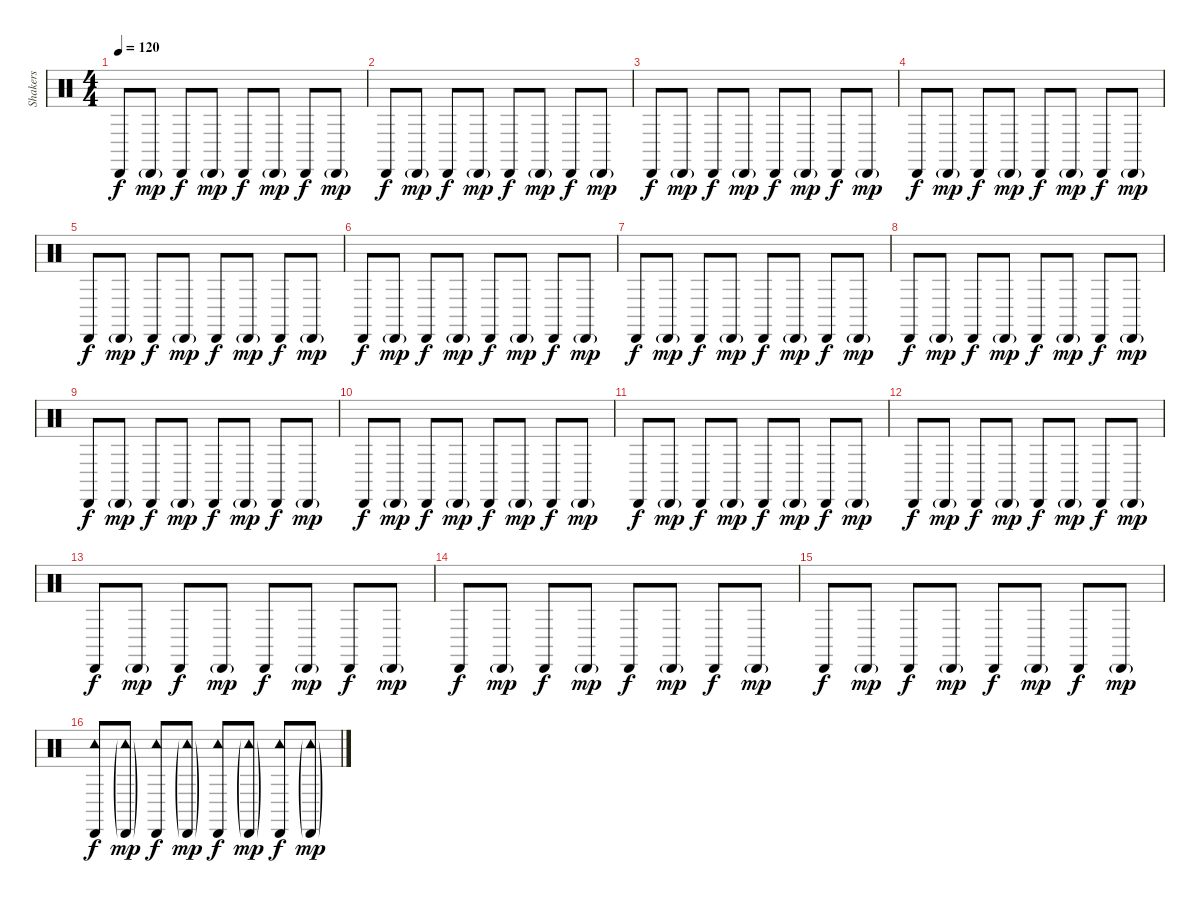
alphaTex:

\track ("Shakers" "Shakers") {instrument percussion}
\staff {score}
\articulation defaults
\ts (4 4)
\tempo 120
\clef neutral
\ks c "Cabasa (hit)".8{dy f} "Cabasa (hit)"{g}.8{dy mp} "Cabasa (hit)".8{dy f} "Cabasa (hit)"{g}.8{dy mp} "Cabasa (hit)".8{dy f} "Cabasa (hit)"{g}.8{dy mp} "Cabasa (hit)".8{dy f} "Cabasa (hit)"{g}.8{dy mp}
|
"Cabasa (hit)".8{dy f} "Cabasa (hit)"{g}.8{dy mp} "Cabasa (hit)".8{dy f} "Cabasa (hit)"{g}.8{dy mp} "Cabasa (hit)".8{dy f} "Cabasa (hit)"{g}.8{dy mp} "Cabasa (hit)".8{dy f} "Cabasa (hit)"{g}.8{dy mp} |
"Cabasa (hit)".8{dy f} "Cabasa (hit)"{g}.8{dy mp} "Cabasa (hit)".8{dy f} "Cabasa (hit)"{g}.8{dy mp} "Cabasa (hit)".8{dy f} "Cabasa (hit)"{g}.8{dy mp} "Cabasa (hit)".8{dy f} "Cabasa (hit)"{g}.8{dy mp} |
"Cabasa (hit)".8{dy f} "Cabasa (hit)"{g}.8{dy mp} "Cabasa (hit)".8{dy f} "Cabasa (hit)"{g}.8{dy mp} "Cabasa (hit)".8{dy f} "Cabasa (hit)"{g}.8{dy mp} "Cabasa (hit)".8{dy f} "Cabasa (hit)"{g}.8{dy mp} |
"Cabasa (hit)".8{dy f} "Cabasa (hit)"{g}.8{dy mp} "Cabasa (hit)".8{dy f} "Cabasa (hit)"{g}.8{dy mp} "Cabasa (hit)".8{dy f} "Cabasa (hit)"{g}.8{dy mp} "Cabasa (hit)".8{dy f} "Cabasa (hit)"{g}.8{dy mp} |
"Cabasa (hit)".8{dy f} "Cabasa (hit)"{g}.8{dy mp} "Cabasa (hit)".8{dy f} "Cabasa (hit)"{g}.8{dy mp} "Cabasa (hit)".8{dy f} "Cabasa (hit)"{g}.8{dy mp} "Cabasa (hit)".8{dy f} "Cabasa (hit)"{g}.8{dy mp} |
"Cabasa (hit)".8{dy f} "Cabasa (hit)"{g}.8{dy mp} "Cabasa (hit)".8{dy f} "Cabasa (hit)"{g}.8{dy mp} "Cabasa (hit)".8{dy f} "Cabasa (hit)"{g}.8{dy mp} "Cabasa (hit)".8{dy f} "Cabasa (hit)"{g}.8{dy mp} |
"Cabasa (hit)".8{dy f} "Cabasa (hit)"{g}.8{dy mp} "Cabasa (hit)".8{dy f} "Cabasa (hit)"{g}.8{dy mp} "Cabasa (hit)".8{dy f} "Cabasa (hit)"{g}.8{dy mp} "Cabasa (hit)".8{dy f} "Cabasa (hit)"{g}.8{dy mp} |
"Cabasa (hit)".8{dy f} "Cabasa (hit)"{g}.8{dy mp} "Cabasa (hit)".8{dy f} "Cabasa (hit)"{g}.8{dy mp} "Cabasa (hit)".8{dy f} "Cabasa (hit)"{g}.8{dy mp} "Cabasa (hit)".8{dy f} "Cabasa (hit)"{g}.8{dy mp} |
"Cabasa (hit)".8{dy f} "Cabasa (hit)"{g}.8{dy mp} "Cabasa (hit)".8{dy f} "Cabasa (hit)"{g}.8{dy mp} "Cabasa (hit)".8{dy f} "Cabasa (hit)"{g}.8{dy mp} "Cabasa (hit)".8{dy f} "Cabasa (hit)"{g}.8{dy mp} |
"Cabasa (hit)".8{dy f} "Cabasa (hit)"{g}.8{dy mp} "Cabasa (hit)".8{dy f} "Cabasa (hit)"{g}.8{dy mp} "Cabasa (hit)".8{dy f} "Cabasa (hit)"{g}.8{dy mp} "Cabasa (hit)".8{dy f} "Cabasa (hit)"{g}.8{dy mp} |
"Cabasa (hit)".8{dy f} "Cabasa (hit)"{g}.8{dy mp} "Cabasa (hit)".8{dy f} "Cabasa (hit)"{g}.8{dy mp} "Cabasa (hit)".8{dy f} "Cabasa (hit)"{g}.8{dy mp} "Cabasa (hit)".8{dy f} "Cabasa (hit)"{g}.8{dy mp} |
"Cabasa (hit)".8{dy f} "Cabasa (hit)"{g}.8{dy mp} "Cabasa (hit)".8{dy f} "Cabasa (hit)"{g}.8{dy mp} "Cabasa (hit)".8{dy f} "Cabasa (hit)"{g}.8{dy mp} "Cabasa (hit)".8{dy f} "Cabasa (hit)"{g}.8{dy mp} |
"Cabasa (hit)".8{dy f} "Cabasa (hit)"{g}.8{dy mp} "Cabasa (hit)".8{dy f} "Cabasa (hit)"{g}.8{dy mp} "Cabasa (hit)".8{dy f} "Cabasa (hit)"{g}.8{dy mp} "Cabasa (hit)".8{dy f} "Cabasa (hit)"{g}.8{dy mp} |
"Cabasa (hit)".8{dy f} "Cabasa (hit)"{g}.8{dy mp} "Cabasa (hit)".8{dy f} "Cabasa (hit)"{g}.8{dy mp} "Cabasa (hit)".8{dy f} "Cabasa (hit)"{g}.8{dy mp} "Cabasa (hit)".8{dy f} "Cabasa (hit)"{g}.8{dy mp} |
("Cabasa (hit)" "Tambourine (hit)").8{dy f} ("Cabasa (hit)"{g} "Tambourine (hit)"{g}).8{dy mp} ("Cabasa (hit)" "Tambourine (hit)").8{dy f} ("Cabasa (hit)"{g} "Tambourine (hit)"{g}).8{dy mp} ("Cabasa (hit)" "Tambourine (hit)").8{dy f} ("Cabasa (hit)"{g} "Tambourine (hit)"{g}).8{dy mp} ("Cabasa (hit)" "Tambourine (hit)").8{dy f} ("Cabasa (hit)"{g} "Tambourine (hit)"{g}).8{dy mp}
